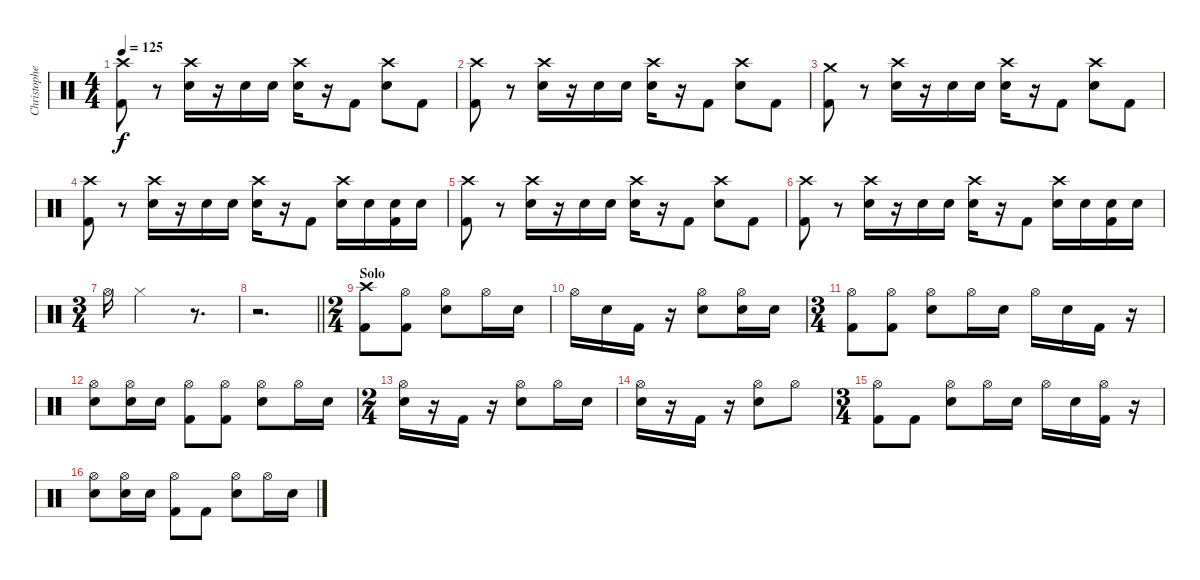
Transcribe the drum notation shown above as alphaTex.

\track ("Christopher - Drums" "Christophe") {instrument percussion}
\staff {score}
\articulation defaults
\ts (4 4)
\tempo 125
\clef neutral
\ks c
("Crash high (hit)" "Kick (hit) 2").8{dy f} r.8 ("Crash high (hit)" "Electric Snare (hit)").16 r.16 "Electric Snare (hit)".16 "Electric Snare (hit)".16 ("Crash high (hit)" "Electric Snare (hit)").16 r.16 "Kick (hit) 2".8 ("Crash high (hit)" "Electric Snare (hit)").8 "Kick (hit) 2".8 |
("Crash high (hit)" "Kick (hit) 2").8 r.8 ("Crash high (hit)" "Electric Snare (hit)").16 r.16 "Electric Snare (hit)".16 "Electric Snare (hit)".16 ("Crash high (hit)" "Electric Snare (hit)").16 r.16 "Kick (hit) 2".8 ("Crash high (hit)" "Electric Snare (hit)").8 "Kick (hit) 2".8 |
("Crash medium (hit)" "Kick (hit) 2").8 r.8 ("Crash high (hit)" "Electric Snare (hit)").16 r.16 "Electric Snare (hit)".16 "Electric Snare (hit)".16 ("Crash high (hit)" "Electric Snare (hit)").16 r.16 "Kick (hit) 2".8 ("Crash high (hit)" "Electric Snare (hit)").8 "Kick (hit) 2".8 |
("Crash high (hit)" "Kick (hit) 2").8 r.8 ("Crash high (hit)" "Electric Snare (hit)").16 r.16 "Electric Snare (hit)".16 "Electric Snare (hit)".16 ("Crash high (hit)" "Electric Snare (hit)").16 r.16 "Kick (hit) 2".8 ("Crash high (hit)" "Electric Snare (hit)").16 "Electric Snare (hit)".16 ("Electric Snare (hit)" "Kick (hit) 2").16 "Electric Snare (hit)".16 |
("Crash high (hit)" "Kick (hit) 2").8 r.8 ("Crash high (hit)" "Electric Snare (hit)").16 r.16 "Electric Snare (hit)".16 "Electric Snare (hit)".16 ("Crash high (hit)" "Electric Snare (hit)").16 r.16 "Kick (hit) 2".8 ("Crash high (hit)" "Electric Snare (hit)").8 "Kick (hit) 2".8 |
("Crash high (hit)" "Kick (hit) 2").8 r.8 ("Crash high (hit)" "Electric Snare (hit)").16 r.16 "Electric Snare (hit)".16 "Electric Snare (hit)".16 ("Crash high (hit)" "Electric Snare (hit)").16 r.16 "Kick (hit) 2".8 ("Crash high (hit)" "Electric Snare (hit)").16 "Electric Snare (hit)".16 ("Electric Snare (hit)" "Kick (hit) 2").16 "Electric Snare (hit)".16 |
\ts (3 4)
"Hi-Hat (open)".16 "Hi-Hat (closed)".2 r.8{d} |
\barLineRight lightlight
r.2{d} |
\ts (2 4)
\section ("" "Solo")
("Crash high (hit)" "Kick (hit) 2").8 ("Hi-Hat (open)" "Kick (hit) 2").8 ("Hi-Hat (open)" "Electric Snare (hit)").8 "Hi-Hat (open)".16 "Electric Snare (hit)".16 |
"Hi-Hat (open)".16 "Electric Snare (hit)".16 "Kick (hit) 2".16 r.16 ("Hi-Hat (open)" "Electric Snare (hit)").8 ("Hi-Hat (open)" "Electric Snare (hit)").16 "Electric Snare (hit)".16 |
\ts (3 4)
("Hi-Hat (open)" "Kick (hit) 2").8 ("Hi-Hat (open)" "Kick (hit) 2").8 ("Hi-Hat (open)" "Electric Snare (hit)").8 "Hi-Hat (open)".16 "Electric Snare (hit)".16 "Hi-Hat (open)".16 "Electric Snare (hit)".16 "Kick (hit) 2".16 r.16 |
("Hi-Hat (open)" "Electric Snare (hit)").8 ("Hi-Hat (open)" "Electric Snare (hit)").16 "Electric Snare (hit)".16 ("Hi-Hat (open)" "Kick (hit) 2").8 ("Hi-Hat (open)" "Kick (hit) 2").8 ("Hi-Hat (open)" "Electric Snare (hit)").8 "Hi-Hat (open)".16 "Electric Snare (hit)".16 |
\ts (2 4)
("Hi-Hat (open)" "Electric Snare (hit)").16 r.16 "Kick (hit) 2".16 r.16 ("Hi-Hat (open)" "Electric Snare (hit)").8 "Hi-Hat (open)".16 "Electric Snare (hit)".16 |
("Hi-Hat (open)" "Electric Snare (hit)").16 r.16 "Kick (hit) 2".16 r.16 ("Hi-Hat (open)" "Electric Snare (hit)").8 "Hi-Hat (open)".8 |
\ts (3 4)
("Hi-Hat (open)" "Kick (hit) 2").8 "Kick (hit) 2".8 ("Hi-Hat (open)" "Electric Snare (hit)").8 "Hi-Hat (open)".16 "Electric Snare (hit)".16 "Hi-Hat (open)".16 "Electric Snare (hit)".16 ("Hi-Hat (open)" "Kick (hit) 2").16 r.16 |
("Hi-Hat (open)" "Electric Snare (hit)").8 ("Hi-Hat (open)" "Electric Snare (hit)").16 "Electric Snare (hit)".16 ("Hi-Hat (open)" "Kick (hit) 2").8 "Kick (hit) 2".8 ("Hi-Hat (open)" "Electric Snare (hit)").8 "Hi-Hat (open)".16 "Electric Snare (hit)".16
